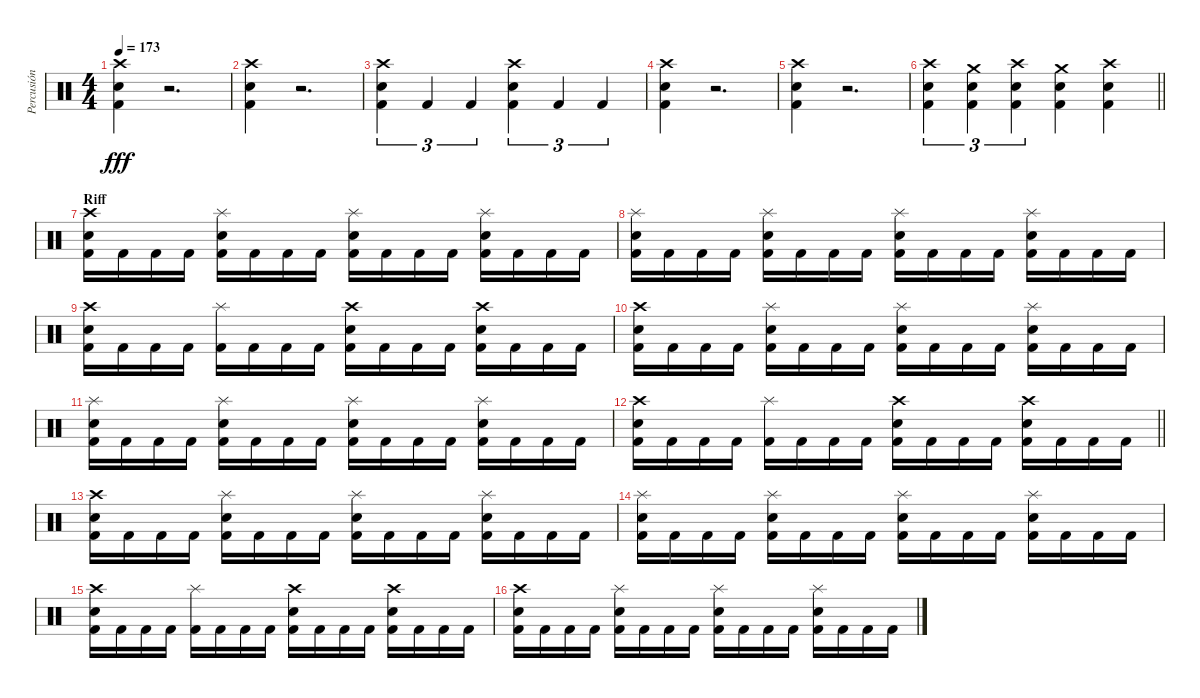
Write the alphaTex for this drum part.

\track ("Percusión" "Percusión") {instrument percussion}
\staff {score}
\articulation defaults
\ts (4 4)
\tempo 173
\clef neutral
\ks c
("Crash high (hit)" "Snare (hit) 2" "Kick (hit) 2").4{dy fff} r.2{d} |
("Crash high (hit)" "Snare (hit) 2" "Kick (hit) 2").4 r.2{d} |
("Crash high (hit)" "Snare (hit) 2" "Kick (hit) 2").4{tu (3 2)} "Kick (hit) 2".4{tu (3 2)} "Kick (hit) 2".4{tu (3 2)} ("Crash high (hit)" "Snare (hit) 2" "Kick (hit) 2").4{tu (3 2)} "Kick (hit) 2".4{tu (3 2)} "Kick (hit) 2".4{tu (3 2)} |
("Crash high (hit)" "Snare (hit) 2" "Kick (hit) 2").4 r.2{d} |
("Crash high (hit)" "Snare (hit) 2" "Kick (hit) 2").4 r.2{d} |
\barLineRight lightlight
("Crash high (hit)" "Snare (hit) 2" "Kick (hit) 2").4{tu (3 2)} ("Crash medium (hit)" "Snare (hit) 2" "Kick (hit) 2").4{tu (3 2)} ("Crash high (hit)" "Snare (hit) 2" "Kick (hit) 2").4{tu (3 2)} ("Crash medium (hit)" "Snare (hit) 2" "Kick (hit) 2").4 ("Crash high (hit)" "Snare (hit) 2" "Kick (hit) 2").4 |
\section ("" "Riff")
("Crash high (hit)" "Electric Snare (hit)" "Kick (hit) 2").16 "Kick (hit) 2".16 "Kick (hit) 2".16 "Kick (hit) 2".16 ("Splash (hit)" "Electric Snare (hit)" "Kick (hit) 2").16 "Kick (hit) 2".16 "Kick (hit) 2".16 "Kick (hit) 2".16 ("Splash (hit)" "Electric Snare (hit)" "Kick (hit) 2").16 "Kick (hit) 2".16 "Kick (hit) 2".16 "Kick (hit) 2".16 ("Splash (hit)" "Electric Snare (hit)" "Kick (hit) 2").16 "Kick (hit) 2".16 "Kick (hit) 2".16 "Kick (hit) 2".16 |
("Splash (hit)" "Electric Snare (hit)" "Kick (hit) 2").16 "Kick (hit) 2".16 "Kick (hit) 2".16 "Kick (hit) 2".16 ("Splash (hit)" "Electric Snare (hit)" "Kick (hit) 2").16 "Kick (hit) 2".16 "Kick (hit) 2".16 "Kick (hit) 2".16 ("Splash (hit)" "Electric Snare (hit)" "Kick (hit) 2").16 "Kick (hit) 2".16 "Kick (hit) 2".16 "Kick (hit) 2".16 ("Splash (hit)" "Electric Snare (hit)" "Kick (hit) 2").16 "Kick (hit) 2".16 "Kick (hit) 2".16 "Kick (hit) 2".16 |
("Crash high (hit)" "Electric Snare (hit)" "Kick (hit) 2").16 "Kick (hit) 2".16 "Kick (hit) 2".16 "Kick (hit) 2".16 ("Splash (hit)" "Kick (hit) 2").16 "Kick (hit) 2".16 "Kick (hit) 2".16 "Kick (hit) 2".16 ("Crash high (hit)" "Electric Snare (hit)" "Kick (hit) 2").16 "Kick (hit) 2".16 "Kick (hit) 2".16 "Kick (hit) 2".16 ("Crash high (hit)" "Electric Snare (hit)" "Kick (hit) 2").16 "Kick (hit) 2".16 "Kick (hit) 2".16 "Kick (hit) 2".16 |
("Crash high (hit)" "Electric Snare (hit)" "Kick (hit) 2").16 "Kick (hit) 2".16 "Kick (hit) 2".16 "Kick (hit) 2".16 ("Splash (hit)" "Electric Snare (hit)" "Kick (hit) 2").16 "Kick (hit) 2".16 "Kick (hit) 2".16 "Kick (hit) 2".16 ("Splash (hit)" "Electric Snare (hit)" "Kick (hit) 2").16 "Kick (hit) 2".16 "Kick (hit) 2".16 "Kick (hit) 2".16 ("Splash (hit)" "Electric Snare (hit)" "Kick (hit) 2").16 "Kick (hit) 2".16 "Kick (hit) 2".16 "Kick (hit) 2".16 |
("Splash (hit)" "Electric Snare (hit)" "Kick (hit) 2").16 "Kick (hit) 2".16 "Kick (hit) 2".16 "Kick (hit) 2".16 ("Splash (hit)" "Electric Snare (hit)" "Kick (hit) 2").16 "Kick (hit) 2".16 "Kick (hit) 2".16 "Kick (hit) 2".16 ("Splash (hit)" "Electric Snare (hit)" "Kick (hit) 2").16 "Kick (hit) 2".16 "Kick (hit) 2".16 "Kick (hit) 2".16 ("Splash (hit)" "Electric Snare (hit)" "Kick (hit) 2").16 "Kick (hit) 2".16 "Kick (hit) 2".16 "Kick (hit) 2".16 |
\barLineRight lightlight
("Crash high (hit)" "Electric Snare (hit)" "Kick (hit) 2").16 "Kick (hit) 2".16 "Kick (hit) 2".16 "Kick (hit) 2".16 ("Splash (hit)" "Kick (hit) 2").16 "Kick (hit) 2".16 "Kick (hit) 2".16 "Kick (hit) 2".16 ("Crash high (hit)" "Electric Snare (hit)" "Kick (hit) 2").16 "Kick (hit) 2".16 "Kick (hit) 2".16 "Kick (hit) 2".16 ("Crash high (hit)" "Electric Snare (hit)" "Kick (hit) 2").16 "Kick (hit) 2".16 "Kick (hit) 2".16 "Kick (hit) 2".16 |
("Crash high (hit)" "Electric Snare (hit)" "Kick (hit) 2").16 "Kick (hit) 2".16 "Kick (hit) 2".16 "Kick (hit) 2".16 ("Splash (hit)" "Electric Snare (hit)" "Kick (hit) 2").16 "Kick (hit) 2".16 "Kick (hit) 2".16 "Kick (hit) 2".16 ("Splash (hit)" "Electric Snare (hit)" "Kick (hit) 2").16 "Kick (hit) 2".16 "Kick (hit) 2".16 "Kick (hit) 2".16 ("Splash (hit)" "Electric Snare (hit)" "Kick (hit) 2").16 "Kick (hit) 2".16 "Kick (hit) 2".16 "Kick (hit) 2".16 |
("Splash (hit)" "Electric Snare (hit)" "Kick (hit) 2").16 "Kick (hit) 2".16 "Kick (hit) 2".16 "Kick (hit) 2".16 ("Splash (hit)" "Electric Snare (hit)" "Kick (hit) 2").16 "Kick (hit) 2".16 "Kick (hit) 2".16 "Kick (hit) 2".16 ("Splash (hit)" "Electric Snare (hit)" "Kick (hit) 2").16 "Kick (hit) 2".16 "Kick (hit) 2".16 "Kick (hit) 2".16 ("Splash (hit)" "Electric Snare (hit)" "Kick (hit) 2").16 "Kick (hit) 2".16 "Kick (hit) 2".16 "Kick (hit) 2".16 |
("Crash high (hit)" "Electric Snare (hit)" "Kick (hit) 2").16 "Kick (hit) 2".16 "Kick (hit) 2".16 "Kick (hit) 2".16 ("Splash (hit)" "Kick (hit) 2").16 "Kick (hit) 2".16 "Kick (hit) 2".16 "Kick (hit) 2".16 ("Crash high (hit)" "Electric Snare (hit)" "Kick (hit) 2").16 "Kick (hit) 2".16 "Kick (hit) 2".16 "Kick (hit) 2".16 ("Crash high (hit)" "Electric Snare (hit)" "Kick (hit) 2").16 "Kick (hit) 2".16 "Kick (hit) 2".16 "Kick (hit) 2".16 |
("Crash high (hit)" "Electric Snare (hit)" "Kick (hit) 2").16 "Kick (hit) 2".16 "Kick (hit) 2".16 "Kick (hit) 2".16 ("Splash (hit)" "Electric Snare (hit)" "Kick (hit) 2").16 "Kick (hit) 2".16 "Kick (hit) 2".16 "Kick (hit) 2".16 ("Splash (hit)" "Electric Snare (hit)" "Kick (hit) 2").16 "Kick (hit) 2".16 "Kick (hit) 2".16 "Kick (hit) 2".16 ("Splash (hit)" "Electric Snare (hit)" "Kick (hit) 2").16 "Kick (hit) 2".16 "Kick (hit) 2".16 "Kick (hit) 2".16
